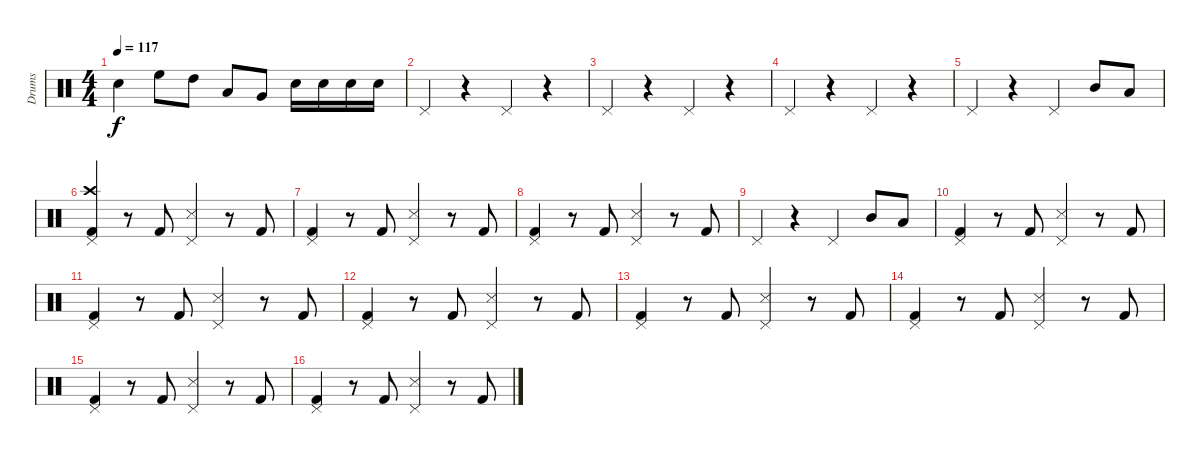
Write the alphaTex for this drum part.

\track ("Drums" "Drums") {instrument percussion}
\staff {score}
\articulation defaults
\ts (4 4)
\tempo 117
\clef neutral
\ks c "Snare (hit) 2".4{dy f} "High Floor Tom (hit)".8 "High Tom (hit)".8 "Low Tom (hit)".8 "Very Low Tom (hit)".8 "Snare (hit) 2".16 "Snare (hit) 2".16 "Snare (hit) 2".16 "Snare (hit) 2".16
|
"Pedal Hi-Hat (hit)".4 r.4 "Pedal Hi-Hat (hit)".4 r.4 |
"Pedal Hi-Hat (hit)".4 r.4 "Pedal Hi-Hat (hit)".4 r.4 |
"Pedal Hi-Hat (hit)".4 r.4 "Pedal Hi-Hat (hit)".4 r.4 |
"Pedal Hi-Hat (hit)".4 r.4 "Pedal Hi-Hat (hit)".4 "Mid Tom (hit)".8 "Low Tom (hit)".8 |
("Pedal Hi-Hat (hit)" "Crash high (hit)" "Kick (hit) 2").4 r.8 "Kick (hit) 2".8 ("Pedal Hi-Hat (hit)" "Snare (side stick) 3").4 r.8 "Kick (hit) 2".8 |
("Pedal Hi-Hat (hit)" "Kick (hit) 2").4 r.8 "Kick (hit) 2".8 ("Pedal Hi-Hat (hit)" "Snare (side stick) 3").4 r.8 "Kick (hit) 2".8 |
("Pedal Hi-Hat (hit)" "Kick (hit) 2").4 r.8 "Kick (hit) 2".8 ("Pedal Hi-Hat (hit)" "Snare (side stick) 3").4 r.8 "Kick (hit) 2".8 |
"Pedal Hi-Hat (hit)".4 r.4 "Pedal Hi-Hat (hit)".4 "Mid Tom (hit)".8 "Low Tom (hit)".8 |
("Pedal Hi-Hat (hit)" "Kick (hit) 2").4 r.8 "Kick (hit) 2".8 ("Pedal Hi-Hat (hit)" "Snare (side stick) 3").4 r.8 "Kick (hit) 2".8 |
("Pedal Hi-Hat (hit)" "Kick (hit) 2").4 r.8 "Kick (hit) 2".8 ("Pedal Hi-Hat (hit)" "Snare (side stick) 3").4 r.8 "Kick (hit) 2".8 |
("Pedal Hi-Hat (hit)" "Kick (hit) 2").4 r.8 "Kick (hit) 2".8 ("Pedal Hi-Hat (hit)" "Snare (side stick) 3").4 r.8 "Kick (hit) 2".8 |
("Pedal Hi-Hat (hit)" "Kick (hit) 2").4 r.8 "Kick (hit) 2".8 ("Pedal Hi-Hat (hit)" "Snare (side stick) 3").4 r.8 "Kick (hit) 2".8 |
("Pedal Hi-Hat (hit)" "Kick (hit) 2").4 r.8 "Kick (hit) 2".8 ("Pedal Hi-Hat (hit)" "Snare (side stick) 3").4 r.8 "Kick (hit) 2".8 |
("Pedal Hi-Hat (hit)" "Kick (hit) 2").4 r.8 "Kick (hit) 2".8 ("Pedal Hi-Hat (hit)" "Snare (side stick) 3").4 r.8 "Kick (hit) 2".8 |
("Pedal Hi-Hat (hit)" "Kick (hit) 2").4 r.8 "Kick (hit) 2".8 ("Pedal Hi-Hat (hit)" "Snare (side stick) 3").4 r.8 "Kick (hit) 2".8
